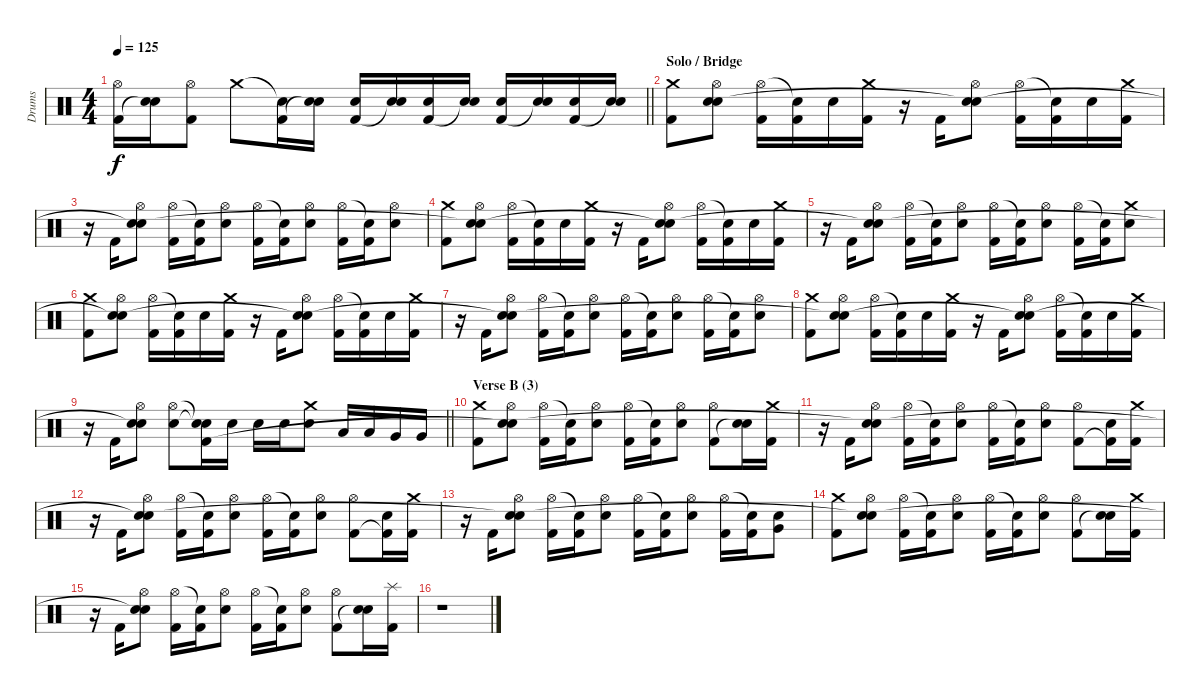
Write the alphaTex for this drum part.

\track ("Drums" "Drums") {instrument percussion}
\staff {score}
\articulation defaults
\ts (4 4)
\tempo 125
\clef neutral
\barLineRight lightlight
\ks c
("Hi-Hat (open)" "Kick (hit) 2").16{dy f} ("Electric Snare (hit)" "Snare (hit)"{t}).16 ("Hi-Hat (open)" "Kick (hit) 2").8 "Crash medium (hit)".8 ("Snare (hit)"{t} "Kick (hit) 2").16 ("Electric Snare (hit)" "Snare (hit)"{t}).16 ("Electric Snare (hit)" "Kick (hit) 2").16 ("Electric Snare (hit)" "Snare (hit)"{t}).16 ("Electric Snare (hit)" "Kick (hit) 2").16 ("Electric Snare (hit)" "Snare (hit)"{t}).16 ("Electric Snare (hit)" "Kick (hit) 2").16 ("Electric Snare (hit)" "Snare (hit)"{t}).16 ("Electric Snare (hit)" "Kick (hit) 2").16 ("Electric Snare (hit)" "Snare (hit)"{t}).16 |
\section ("" "Solo / Bridge")
("Crash medium (hit)" "Kick (hit) 2").8 ("Hi-Hat (open)" "Electric Snare (hit)" "Snare (hit)"{t}).8 ("Hi-Hat (open)" "Kick (hit) 2").16 ("Snare (hit)"{t} "Kick (hit) 2").16 "Electric Snare (hit)".16 ("Crash medium (hit)" "Kick (hit) 2").16 r.16 "Kick (hit) 2".16 ("Hi-Hat (open)" "Electric Snare (hit)" "Snare (hit)"{t}).8 ("Hi-Hat (open)" "Kick (hit) 2").16 ("Snare (hit)"{t} "Kick (hit) 2").16 "Electric Snare (hit)".16 ("Crash medium (hit)" "Kick (hit) 2").16 |
r.16 "Kick (hit) 2".16 ("Hi-Hat (open)" "Electric Snare (hit)" "Snare (hit)"{t}).8 ("Hi-Hat (open)" "Kick (hit) 2").16 ("Snare (hit)"{t} "Kick (hit) 2").16 ("Hi-Hat (open)" "Electric Snare (hit)").8 ("Hi-Hat (open)" "Kick (hit) 2").16 ("Snare (hit)"{t} "Kick (hit) 2").16 ("Hi-Hat (open)" "Electric Snare (hit)").8 ("Hi-Hat (open)" "Kick (hit) 2").16 ("Snare (hit)"{t} "Kick (hit) 2").16 ("Hi-Hat (open)" "Electric Snare (hit)").8 |
("Crash medium (hit)" "Kick (hit) 2").8 ("Hi-Hat (open)" "Electric Snare (hit)" "Snare (hit)"{t}).8 ("Hi-Hat (open)" "Kick (hit) 2").16 ("Snare (hit)"{t} "Kick (hit) 2").16 "Electric Snare (hit)".16 ("Crash medium (hit)" "Kick (hit) 2").16 r.16 "Kick (hit) 2".16 ("Hi-Hat (open)" "Electric Snare (hit)" "Snare (hit)"{t}).8 ("Hi-Hat (open)" "Kick (hit) 2").16 ("Snare (hit)"{t} "Kick (hit) 2").16 "Electric Snare (hit)".16 ("Crash medium (hit)" "Kick (hit) 2").16 |
r.16 "Kick (hit) 2".16 ("Hi-Hat (open)" "Electric Snare (hit)" "Snare (hit)"{t}).8 ("Hi-Hat (open)" "Kick (hit) 2").16 ("Snare (hit)"{t} "Kick (hit) 2").16 ("Hi-Hat (open)" "Electric Snare (hit)").8 ("Hi-Hat (open)" "Kick (hit) 2").16 ("Snare (hit)"{t} "Kick (hit) 2").16 ("Hi-Hat (open)" "Electric Snare (hit)").8 ("Hi-Hat (open)" "Kick (hit) 2").16 ("Snare (hit)"{t} "Kick (hit) 2").16 ("Crash medium (hit)" "Electric Snare (hit)").8 |
("Crash medium (hit)" "Kick (hit) 2").8 ("Hi-Hat (open)" "Electric Snare (hit)" "Snare (hit)"{t}).8 ("Hi-Hat (open)" "Kick (hit) 2").16 ("Snare (hit)"{t} "Kick (hit) 2").16 "Electric Snare (hit)".16 ("Crash medium (hit)" "Kick (hit) 2").16 r.16 "Kick (hit) 2".16 ("Hi-Hat (open)" "Electric Snare (hit)" "Snare (hit)"{t}).8 ("Hi-Hat (open)" "Kick (hit) 2").16 ("Snare (hit)"{t} "Kick (hit) 2").16 "Electric Snare (hit)".16 ("Crash medium (hit)" "Kick (hit) 2").16 |
r.16 "Kick (hit) 2".16 ("Hi-Hat (open)" "Electric Snare (hit)" "Snare (hit)"{t}).8 ("Hi-Hat (open)" "Kick (hit) 2").16 ("Snare (hit)"{t} "Kick (hit) 2").16 ("Hi-Hat (open)" "Electric Snare (hit)").8 ("Hi-Hat (open)" "Kick (hit) 2").16 ("Snare (hit)"{t} "Kick (hit) 2").16 ("Hi-Hat (open)" "Electric Snare (hit)").8 ("Hi-Hat (open)" "Kick (hit) 2").16 ("Snare (hit)"{t} "Kick (hit) 2").16 ("Hi-Hat (open)" "Electric Snare (hit)").8 |
("Crash medium (hit)" "Kick (hit) 2").8 ("Hi-Hat (open)" "Electric Snare (hit)" "Snare (hit)"{t}).8 ("Hi-Hat (open)" "Kick (hit) 2").16 ("Snare (hit)"{t} "Kick (hit) 2").16 "Electric Snare (hit)".16 ("Crash medium (hit)" "Kick (hit) 2").16 r.16 "Kick (hit) 2".16 ("Hi-Hat (open)" "Electric Snare (hit)" "Snare (hit)"{t}).8 ("Hi-Hat (open)" "Kick (hit) 2").16 ("Snare (hit)"{t} "Kick (hit) 2").16 "Electric Snare (hit)".16 ("Crash medium (hit)" "Kick (hit) 2").16 |
\barLineRight lightlight
r.16 "Kick (hit) 2".16 ("Hi-Hat (open)" "Electric Snare (hit)" "Snare (hit)"{t}).8 ("Hi-Hat (open)" "Electric Snare (hit)").8 ("Snare (hit)"{t} "Snare (hit)"{t} "Kick (hit) 2").16 "Electric Snare (hit)".16 "Electric Snare (hit)".16 "Electric Snare (hit)".16 ("Crash medium (hit)" "Electric Snare (hit)").8 "Low Tom (hit)".16 "Low Tom (hit)".16 "Very Low Tom (hit)".16 "Very Low Tom (hit)".16 |
\section ("" "Verse B (3)")
("Crash medium (hit)" "Kick (hit) 2").8 ("Hi-Hat (open)" "Electric Snare (hit)" "Snare (hit)"{t}).8 ("Hi-Hat (open)" "Kick (hit) 2").16 ("Snare (hit)"{t} "Kick (hit) 2").16 ("Hi-Hat (open)" "Electric Snare (hit)").8 ("Hi-Hat (open)" "Kick (hit) 2").16 ("Snare (hit)"{t} "Kick (hit) 2").16 ("Hi-Hat (open)" "Electric Snare (hit)").8 ("Hi-Hat (open)" "Kick (hit) 2").8 ("Electric Snare (hit)" "Snare (hit)"{t}).16 ("Crash medium (hit)" "Kick (hit) 2").16 |
r.16 "Kick (hit) 2".16 ("Hi-Hat (open)" "Electric Snare (hit)" "Snare (hit)"{t}).8 ("Hi-Hat (open)" "Kick (hit) 2").16 ("Snare (hit)"{t} "Kick (hit) 2").16 ("Hi-Hat (open)" "Electric Snare (hit)").8 ("Hi-Hat (open)" "Kick (hit) 2").16 ("Snare (hit)"{t} "Kick (hit) 2").16 ("Hi-Hat (open)" "Electric Snare (hit)").8 ("Hi-Hat (open)" "Kick (hit) 2").8 ("Electric Snare (hit)" "Kick (hit) 2"{t}).16 ("Crash medium (hit)" "Kick (hit) 2").16 |
r.16 "Kick (hit) 2".16 ("Hi-Hat (open)" "Electric Snare (hit)" "Snare (hit)"{t}).8 ("Hi-Hat (open)" "Kick (hit) 2").16 ("Snare (hit)"{t} "Kick (hit) 2").16 ("Hi-Hat (open)" "Electric Snare (hit)").8 ("Hi-Hat (open)" "Kick (hit) 2").16 ("Snare (hit)"{t} "Kick (hit) 2").16 ("Hi-Hat (open)" "Electric Snare (hit)").8 ("Hi-Hat (open)" "Kick (hit) 2").8 ("Electric Snare (hit)" "Kick (hit) 2"{t}).16 ("Crash medium (hit)" "Kick (hit) 2").16 |
r.16 "Kick (hit) 2".16 ("Hi-Hat (open)" "Electric Snare (hit)" "Snare (hit)"{t}).8 ("Hi-Hat (open)" "Kick (hit) 2").16 ("Snare (hit)"{t} "Kick (hit) 2").16 ("Hi-Hat (open)" "Electric Snare (hit)").8 ("Hi-Hat (open)" "Kick (hit) 2").16 ("Snare (hit)"{t} "Kick (hit) 2").16 ("Hi-Hat (open)" "Electric Snare (hit)").8 ("Hi-Hat (open)" "Kick (hit) 2").16 ("Snare (hit)"{t} "Kick (hit) 2").16 ("Electric Snare (hit)" "Very Low Tom (hit)").8 |
("Crash medium (hit)" "Kick (hit) 2").8 ("Hi-Hat (open)" "Electric Snare (hit)" "Snare (hit)"{t}).8 ("Hi-Hat (open)" "Kick (hit) 2").16 ("Snare (hit)"{t} "Kick (hit) 2").16 ("Hi-Hat (open)" "Electric Snare (hit)").8 ("Hi-Hat (open)" "Kick (hit) 2").16 ("Snare (hit)"{t} "Kick (hit) 2").16 ("Hi-Hat (open)" "Electric Snare (hit)").8 ("Hi-Hat (open)" "Kick (hit) 2").8 ("Electric Snare (hit)" "Snare (hit)"{t}).16 ("Crash medium (hit)" "Kick (hit) 2").16 |
r.16 "Kick (hit) 2".16 ("Hi-Hat (open)" "Electric Snare (hit)" "Snare (hit)"{t}).8 ("Hi-Hat (open)" "Kick (hit) 2").16 ("Snare (hit)"{t} "Kick (hit) 2").16 ("Hi-Hat (open)" "Electric Snare (hit)").8 ("Hi-Hat (open)" "Kick (hit) 2").16 ("Snare (hit)"{t} "Kick (hit) 2").16 ("Hi-Hat (open)" "Electric Snare (hit)").8 ("Hi-Hat (open)" "Kick (hit) 2").8 ("Electric Snare (hit)" "Snare (hit)"{t}).16 ("Splash (hit)" "Kick (hit) 2").16 |
r.1
